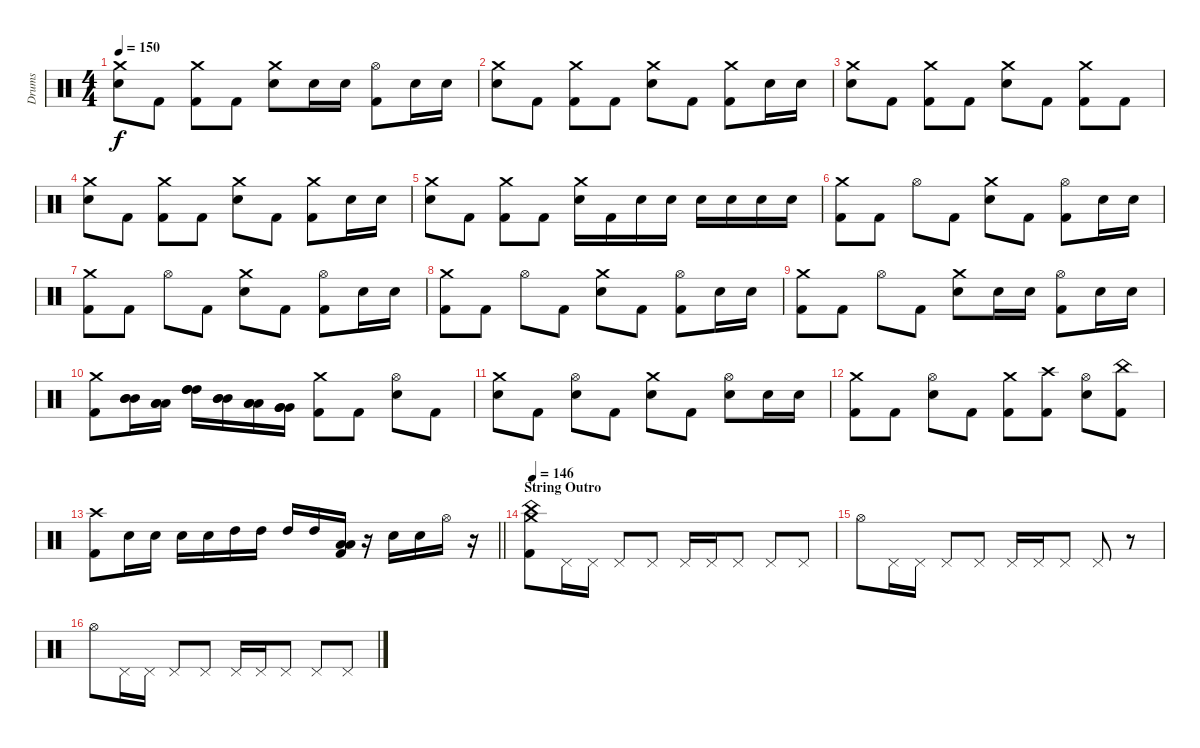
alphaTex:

\track ("Drums" "Drums") {instrument percussion}
\staff {score}
\articulation defaults
\ts (4 4)
\tempo 150
\clef neutral
\ks c
("Crash medium (hit)" "Electric Snare (hit)").8{dy f} "Kick (hit) 2".8 ("Crash medium (hit)" "Kick (hit) 2").8 "Kick (hit) 2".8 ("Crash medium (hit)" "Electric Snare (hit)").8 "Electric Snare (hit)".16 "Electric Snare (hit)".16 ("Hi-Hat (open)" "Kick (hit) 2").8 "Electric Snare (hit)".16 "Electric Snare (hit)".16 |
("Crash medium (hit)" "Electric Snare (hit)").8 "Kick (hit) 2".8 ("Crash medium (hit)" "Kick (hit) 2").8 "Kick (hit) 2".8 ("Crash medium (hit)" "Electric Snare (hit)").8 "Kick (hit) 2".8 ("Crash medium (hit)" "Kick (hit) 2").8 "Electric Snare (hit)".16 "Electric Snare (hit)".16 |
("Crash medium (hit)" "Electric Snare (hit)").8 "Kick (hit) 2".8 ("Crash medium (hit)" "Kick (hit) 2").8 "Kick (hit) 2".8 ("Crash medium (hit)" "Electric Snare (hit)").8 "Kick (hit) 2".8 ("Crash medium (hit)" "Kick (hit) 2").8 "Kick (hit) 2".8 |
("Crash medium (hit)" "Electric Snare (hit)").8 "Kick (hit) 2".8 ("Crash medium (hit)" "Kick (hit) 2").8 "Kick (hit) 2".8 ("Crash medium (hit)" "Electric Snare (hit)").8 "Kick (hit) 2".8 ("Crash medium (hit)" "Kick (hit) 2").8 "Electric Snare (hit)".16 "Electric Snare (hit)".16 |
("Crash medium (hit)" "Electric Snare (hit)").8 "Kick (hit) 2".8 ("Crash medium (hit)" "Kick (hit) 2").8 "Kick (hit) 2".8 ("Crash medium (hit)" "Electric Snare (hit)").16 "Kick (hit) 2".16 "Electric Snare (hit)".16 "Electric Snare (hit)".16 "Electric Snare (hit)".16 "Electric Snare (hit)".16 "Electric Snare (hit)".16 "Electric Snare (hit)".16 |
("Crash medium (hit)" "Kick (hit) 2").8 "Kick (hit) 2".8 "Hi-Hat (open)".8 "Kick (hit) 2".8 ("Crash medium (hit)" "Electric Snare (hit)").8 "Kick (hit) 2".8 ("Hi-Hat (open)" "Kick (hit) 2").8 "Electric Snare (hit)".16 "Electric Snare (hit)".16 |
("Crash medium (hit)" "Kick (hit) 2").8 "Kick (hit) 2".8 "Hi-Hat (open)".8 "Kick (hit) 2".8 ("Crash medium (hit)" "Electric Snare (hit)").8 "Kick (hit) 2".8 ("Hi-Hat (open)" "Kick (hit) 2").8 "Electric Snare (hit)".16 "Electric Snare (hit)".16 |
("Crash medium (hit)" "Kick (hit) 2").8 "Kick (hit) 2".8 "Hi-Hat (open)".8 "Kick (hit) 2".8 ("Crash medium (hit)" "Electric Snare (hit)").8 "Kick (hit) 2".8 ("Hi-Hat (open)" "Kick (hit) 2").8 "Electric Snare (hit)".16 "Electric Snare (hit)".16 |
("Crash medium (hit)" "Kick (hit) 2").8 "Kick (hit) 2".8 "Hi-Hat (open)".8 "Kick (hit) 2".8 ("Crash medium (hit)" "Electric Snare (hit)").8 "Electric Snare (hit)".16 "Electric Snare (hit)".16 ("Hi-Hat (open)" "Kick (hit) 2").8 "Electric Snare (hit)".16 "Electric Snare (hit)".16 |
("Crash medium (hit)" "Kick (hit) 2").8 ("Mid Tom (hit)" "Mid Tom (hit)" "Mid Tom (hit)").16 ("Low Tom (hit)" "Low Tom (hit)" "Low Tom (hit)").16 ("High Tom (hit)" "High Tom (hit)" "High Tom (hit)").16 ("Mid Tom (hit)" "Mid Tom (hit)" "Mid Tom (hit)").16 ("Low Tom (hit)" "Low Tom (hit)" "Low Tom (hit)").16 ("Very Low Tom (hit)" "Very Low Tom (hit)" "Very Low Tom (hit)").16 ("Crash medium (hit)" "Kick (hit) 2").8 "Kick (hit) 2".8 ("Hi-Hat (open)" "Electric Snare (hit)").8 "Kick (hit) 2".8 |
("Crash medium (hit)" "Electric Snare (hit)").8 "Kick (hit) 2".8 ("Hi-Hat (open)" "Electric Snare (hit)").8 "Kick (hit) 2".8 ("Crash medium (hit)" "Electric Snare (hit)").8 "Kick (hit) 2".8 ("Hi-Hat (open)" "Electric Snare (hit)").8 "Electric Snare (hit)".16 "Electric Snare (hit)".16 |
("Crash medium (hit)" "Kick (hit) 2").8 "Kick (hit) 2".8 ("Hi-Hat (open)" "Electric Snare (hit)").8 "Kick (hit) 2".8 ("Crash medium (hit)" "Kick (hit) 2").8 ("Crash high (hit)" "Kick (hit) 2").8 ("Hi-Hat (open)" "Electric Snare (hit)").8 ("China (hit)" "Kick (hit) 2").8 |
\barLineRight lightlight
("Crash high (hit)" "Kick (hit) 2").8 "Electric Snare (hit)".16 "Electric Snare (hit)".16 "Electric Snare (hit)".16 "Electric Snare (hit)".16 "High Tom (hit)".16 "High Tom (hit)".16 "High Tom (hit)".16 "High Tom (hit)".16 ("Low Tom (hit)" "Low Tom (hit)" "Kick (hit) 2").16 r.16 "Electric Snare (hit)".16 "Electric Snare (hit)".16 "Hi-Hat (open)".16 r.16 |
\section ("" "String Outro")
\tempo 146
("Crash medium (hit)" "China (hit)" "Kick (hit) 2").8 "Pedal Hi-Hat (hit)".16 "Pedal Hi-Hat (hit)".16 "Pedal Hi-Hat (hit)".8 "Pedal Hi-Hat (hit)".8 "Pedal Hi-Hat (hit)".16 "Pedal Hi-Hat (hit)".16 "Pedal Hi-Hat (hit)".8 "Pedal Hi-Hat (hit)".8 "Pedal Hi-Hat (hit)".8 |
"Hi-Hat (open)".8 "Pedal Hi-Hat (hit)".16 "Pedal Hi-Hat (hit)".16 "Pedal Hi-Hat (hit)".8 "Pedal Hi-Hat (hit)".8 "Pedal Hi-Hat (hit)".16 "Pedal Hi-Hat (hit)".16 "Pedal Hi-Hat (hit)".8 "Pedal Hi-Hat (hit)".8 r.8 |
"Hi-Hat (open)".8 "Pedal Hi-Hat (hit)".16 "Pedal Hi-Hat (hit)".16 "Pedal Hi-Hat (hit)".8 "Pedal Hi-Hat (hit)".8 "Pedal Hi-Hat (hit)".16 "Pedal Hi-Hat (hit)".16 "Pedal Hi-Hat (hit)".8 "Pedal Hi-Hat (hit)".8 "Pedal Hi-Hat (hit)".8
